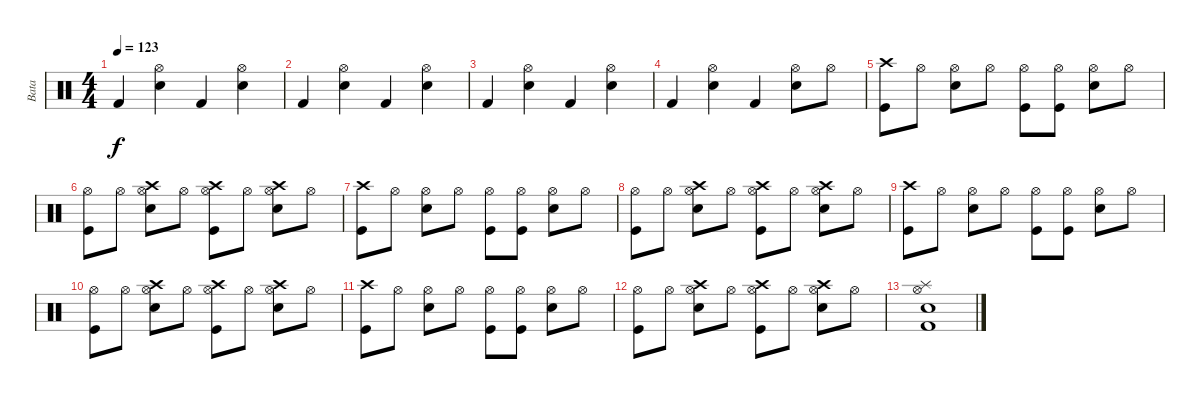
\track ("Bata" "Bata") {instrument percussion}
\staff {score}
\articulation defaults
\ts (4 4)
\tempo 123
\clef neutral
\ks c "Kick (hit) 2".4{dy f}
("Hi-Hat (open)" "Snare (hit) 2").4 "Kick (hit) 2".4 ("Hi-Hat (open)" "Snare (hit) 2").4 |
"Kick (hit) 2".4 ("Hi-Hat (open)" "Snare (hit) 2").4 "Kick (hit) 2".4 ("Hi-Hat (open)" "Snare (hit) 2").4 |
"Kick (hit) 2".4 ("Hi-Hat (open)" "Snare (hit) 2").4 "Kick (hit) 2".4 ("Hi-Hat (open)" "Snare (hit) 2").4 |
"Kick (hit) 2".4 ("Hi-Hat (open)" "Snare (hit) 2").4 "Kick (hit) 2".4 ("Hi-Hat (open)" "Snare (hit) 2").8 "Hi-Hat (open)".8 |
("Crash high (hit)" "Kick (hit)").8 "Hi-Hat (open)".8 ("Hi-Hat (open)" "Snare (hit) 2").8 "Hi-Hat (open)".8 ("Hi-Hat (open)" "Kick (hit)").8 ("Hi-Hat (open)" "Kick (hit)").8 ("Hi-Hat (open)" "Snare (hit) 2").8 "Hi-Hat (open)".8 |
("Hi-Hat (open)" "Kick (hit)").8 "Hi-Hat (open)".8 ("Hi-Hat (open)" "Snare (hit) 2" "Crash high (hit)").8 "Hi-Hat (open)".8 ("Hi-Hat (open)" "Kick (hit)" "Crash high (hit)").8 "Hi-Hat (open)".8 ("Hi-Hat (open)" "Snare (hit) 2" "Crash high (hit)").8 "Hi-Hat (open)".8 |
("Crash high (hit)" "Kick (hit)").8 "Hi-Hat (open)".8 ("Hi-Hat (open)" "Snare (hit) 2").8 "Hi-Hat (open)".8 ("Hi-Hat (open)" "Kick (hit)").8 ("Hi-Hat (open)" "Kick (hit)").8 ("Hi-Hat (open)" "Snare (hit) 2").8 "Hi-Hat (open)".8 |
("Hi-Hat (open)" "Kick (hit)").8 "Hi-Hat (open)".8 ("Hi-Hat (open)" "Snare (hit) 2" "Crash high (hit)").8 "Hi-Hat (open)".8 ("Hi-Hat (open)" "Kick (hit)" "Crash high (hit)").8 "Hi-Hat (open)".8 ("Hi-Hat (open)" "Snare (hit) 2" "Crash high (hit)").8 "Hi-Hat (open)".8 |
("Crash high (hit)" "Kick (hit)").8 "Hi-Hat (open)".8 ("Hi-Hat (open)" "Snare (hit) 2").8 "Hi-Hat (open)".8 ("Hi-Hat (open)" "Kick (hit)").8 ("Hi-Hat (open)" "Kick (hit)").8 ("Hi-Hat (open)" "Snare (hit) 2").8 "Hi-Hat (open)".8 |
("Hi-Hat (open)" "Kick (hit)").8 "Hi-Hat (open)".8 ("Hi-Hat (open)" "Snare (hit) 2" "Crash high (hit)").8 "Hi-Hat (open)".8 ("Hi-Hat (open)" "Kick (hit)" "Crash high (hit)").8 "Hi-Hat (open)".8 ("Hi-Hat (open)" "Snare (hit) 2" "Crash high (hit)").8 "Hi-Hat (open)".8 |
("Crash high (hit)" "Kick (hit)").8 "Hi-Hat (open)".8 ("Hi-Hat (open)" "Snare (hit) 2").8 "Hi-Hat (open)".8 ("Hi-Hat (open)" "Kick (hit)").8 ("Hi-Hat (open)" "Kick (hit)").8 ("Hi-Hat (open)" "Snare (hit) 2").8 "Hi-Hat (open)".8 |
("Hi-Hat (open)" "Kick (hit)").8 "Hi-Hat (open)".8 ("Hi-Hat (open)" "Snare (hit) 2" "Crash high (hit)").8 "Hi-Hat (open)".8 ("Hi-Hat (open)" "Kick (hit)" "Crash high (hit)").8 "Hi-Hat (open)".8 ("Hi-Hat (open)" "Snare (hit) 2" "Crash high (hit)").8 "Hi-Hat (open)".8 |
("Kick (hit) 2" "Snare (hit) 2" "Hi-Hat (open)" "Splash (hit)").1
